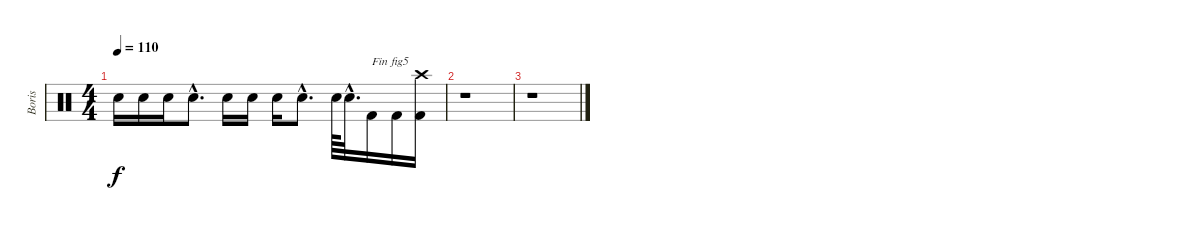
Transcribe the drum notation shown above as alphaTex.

\track ("Boris" "Boris") {instrument percussion}
\staff {score}
\articulation defaults
\ts (4 4)
\tempo 110
\clef neutral
\ks c "Electric Snare (hit)".16{dy f} "Electric Snare (hit)".16 "Electric Snare (hit)".16 "Electric Snare (hit)"{hac}.8{d} "Electric Snare (hit)".16 "Electric Snare (hit)".16 "Electric Snare (hit)".16 "Electric Snare (hit)"{hac}.8{d} "Electric Snare (hit)".64 "Electric Snare (hit)"{hac}.32{d} "Kick (hit) 2".16{txt "Fin fig5"} "Kick (hit) 2".16
("Kick (hit) 2" "Crash high (hit)").16 |
r.1 |
r.1
